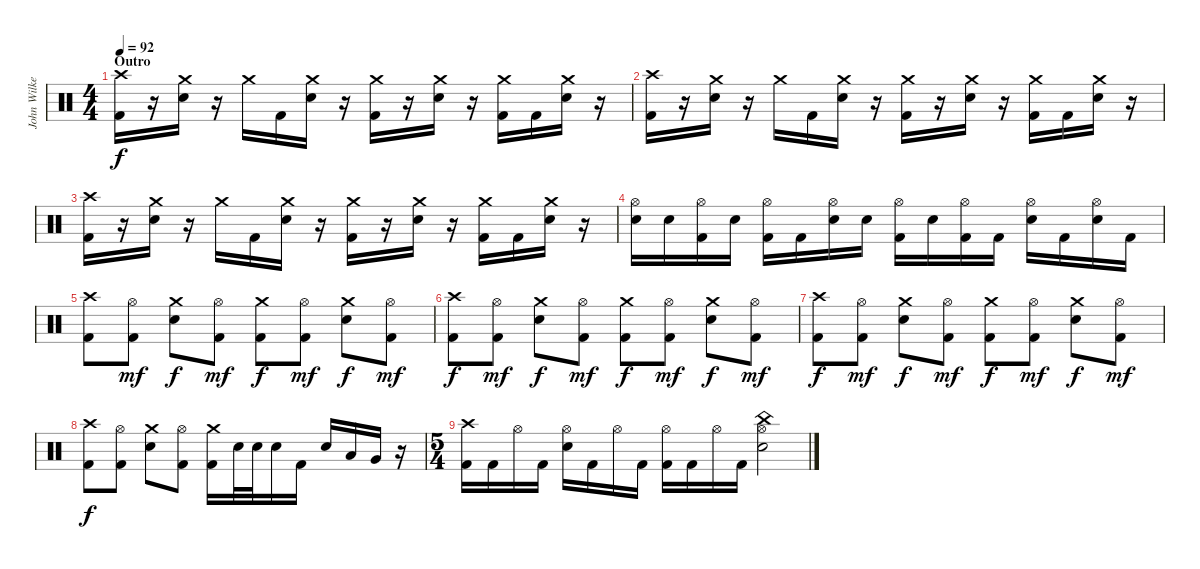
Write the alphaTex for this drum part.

\track ("John Wilkes (Percussion)" "John Wilke") {instrument percussion}
\staff {score}
\articulation defaults
\ts (4 4)
\section ("" "Outro")
\tempo 92
\clef neutral
\ks c
("Crash high (hit)" "Kick (hit) 2").16{dy f} r.16 ("Crash medium (hit)" "Electric Snare (hit)").16 r.16 "Crash medium (hit)".16 "Kick (hit) 2".16 ("Crash medium (hit)" "Electric Snare (hit)").16 r.16 ("Crash medium (hit)" "Kick (hit) 2").16 r.16 ("Crash medium (hit)" "Electric Snare (hit)").16 r.16 ("Crash medium (hit)" "Kick (hit) 2").16 "Kick (hit) 2".16 ("Crash medium (hit)" "Electric Snare (hit)").16 r.16 |
("Crash high (hit)" "Kick (hit) 2").16 r.16 ("Crash medium (hit)" "Electric Snare (hit)").16 r.16 "Crash medium (hit)".16 "Kick (hit) 2".16 ("Crash medium (hit)" "Electric Snare (hit)").16 r.16 ("Crash medium (hit)" "Kick (hit) 2").16 r.16 ("Crash medium (hit)" "Electric Snare (hit)").16 r.16 ("Crash medium (hit)" "Kick (hit) 2").16 "Kick (hit) 2".16 ("Crash medium (hit)" "Electric Snare (hit)").16 r.16 |
("Crash high (hit)" "Kick (hit) 2").16 r.16 ("Crash medium (hit)" "Electric Snare (hit)").16 r.16 "Crash medium (hit)".16 "Kick (hit) 2".16 ("Crash medium (hit)" "Electric Snare (hit)").16 r.16 ("Crash medium (hit)" "Kick (hit) 2").16 r.16 ("Crash medium (hit)" "Electric Snare (hit)").16 r.16 ("Crash medium (hit)" "Kick (hit) 2").16 "Kick (hit) 2".16 ("Crash medium (hit)" "Electric Snare (hit)").16 r.16 |
("Hi-Hat (open)" "Electric Snare (hit)").16 "Electric Snare (hit)".16 ("Hi-Hat (open)" "Kick (hit) 2").16 "Electric Snare (hit)".16 ("Hi-Hat (open)" "Kick (hit) 2").16 "Kick (hit) 2".16 ("Hi-Hat (open)" "Electric Snare (hit)").16 "Electric Snare (hit)".16 ("Hi-Hat (open)" "Kick (hit) 2").16 "Electric Snare (hit)".16 ("Hi-Hat (open)" "Kick (hit) 2").16 "Kick (hit) 2".16 ("Hi-Hat (open)" "Electric Snare (hit)").16 "Kick (hit) 2".16 ("Hi-Hat (open)" "Electric Snare (hit)").16 "Kick (hit) 2".16 |
("Crash high (hit)" "Kick (hit) 2").8 ("Hi-Hat (open)" "Kick (hit) 2").8{dy mf} ("Crash medium (hit)" "Electric Snare (hit)").8{dy f} ("Hi-Hat (open)" "Kick (hit) 2").8{dy mf} ("Crash medium (hit)" "Kick (hit) 2").8{dy f} ("Hi-Hat (open)" "Kick (hit) 2").8{dy mf} ("Crash medium (hit)" "Electric Snare (hit)").8{dy f} ("Hi-Hat (open)" "Kick (hit) 2").8{dy mf} |
("Crash high (hit)" "Kick (hit) 2").8{dy f} ("Hi-Hat (open)" "Kick (hit) 2").8{dy mf} ("Crash medium (hit)" "Electric Snare (hit)").8{dy f} ("Hi-Hat (open)" "Kick (hit) 2").8{dy mf} ("Crash medium (hit)" "Kick (hit) 2").8{dy f} ("Hi-Hat (open)" "Kick (hit) 2").8{dy mf} ("Crash medium (hit)" "Electric Snare (hit)").8{dy f} ("Hi-Hat (open)" "Kick (hit) 2").8{dy mf} |
("Crash high (hit)" "Kick (hit) 2").8{dy f} ("Hi-Hat (open)" "Kick (hit) 2").8{dy mf} ("Crash medium (hit)" "Electric Snare (hit)").8{dy f} ("Hi-Hat (open)" "Kick (hit) 2").8{dy mf} ("Crash medium (hit)" "Kick (hit) 2").8{dy f} ("Hi-Hat (open)" "Kick (hit) 2").8{dy mf} ("Crash medium (hit)" "Electric Snare (hit)").8{dy f} ("Hi-Hat (open)" "Kick (hit) 2").8{dy mf} |
("Crash high (hit)" "Kick (hit) 2").8{dy f} ("Hi-Hat (open)" "Kick (hit) 2").8 ("Crash medium (hit)" "Electric Snare (hit)").8 ("Hi-Hat (open)" "Kick (hit) 2").8 ("Crash medium (hit)" "Kick (hit) 2").16 "Electric Snare (hit)".32 "Electric Snare (hit)".32 "Electric Snare (hit)".16 "Kick (hit) 2".16 "Electric Snare (hit)".16 "Low Tom (hit)".16 "Very Low Tom (hit)".16 r.16 |
\ts (5 4)
("Crash high (hit)" "Kick (hit) 2").16 "Kick (hit) 2".16 "Hi-Hat (open)".16 "Kick (hit) 2".16 ("Hi-Hat (open)" "Electric Snare (hit)").16 "Kick (hit) 2".16 "Hi-Hat (open)".16 "Kick (hit) 2".16 ("Hi-Hat (open)" "Kick (hit) 2").16 "Kick (hit) 2".16 "Hi-Hat (open)".16 "Kick (hit) 2".16 ("China (hit)" "Hi-Hat (open)" "Electric Snare (hit)").2
